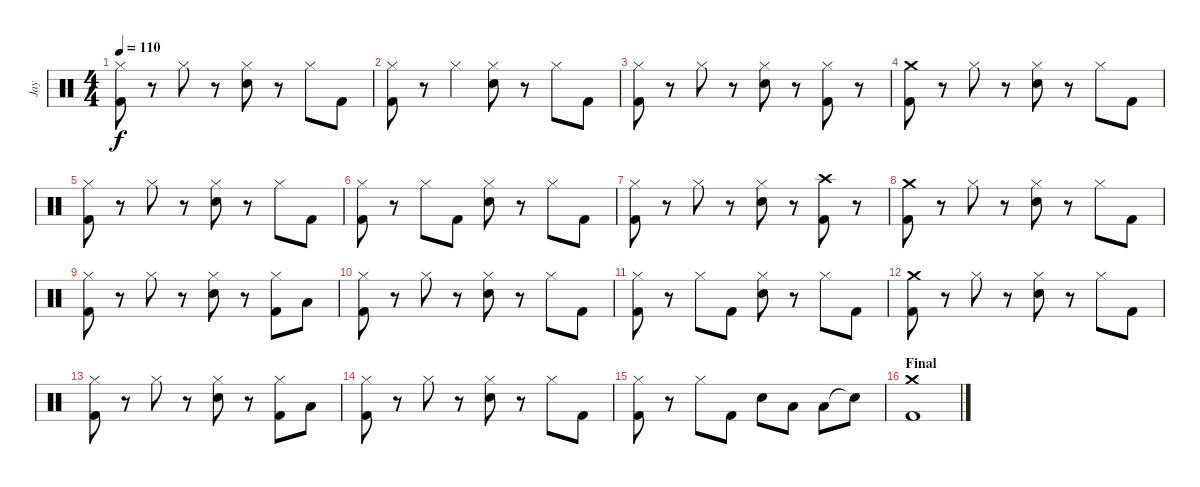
\track ("Jay" "Jay") {instrument percussion}
\staff {score}
\articulation defaults
\ts (4 4)
\tempo 110
\clef neutral
\ks c
("Hi-Hat (closed)" "Kick (hit) 2").8{dy f} r.8 "Hi-Hat (closed)".8 r.8 ("Hi-Hat (closed)" "Snare (hit) 2").8 r.8 "Hi-Hat (closed)".8 "Kick (hit) 2".8 |
("Hi-Hat (closed)" "Kick (hit) 2").8 r.8 "Hi-Hat (closed)".4 ("Hi-Hat (closed)" "Snare (hit) 2").8 r.8 "Hi-Hat (closed)".8 "Kick (hit) 2".8 |
("Hi-Hat (closed)" "Kick (hit) 2").8 r.8 "Hi-Hat (closed)".8 r.8 ("Hi-Hat (closed)" "Snare (hit) 2").8 r.8 ("Hi-Hat (closed)" "Kick (hit) 2").8 r.8 |
("Crash medium (hit)" "Kick (hit) 2").8 r.8 "Hi-Hat (closed)".8 r.8 ("Hi-Hat (closed)" "Snare (hit) 2").8 r.8 "Hi-Hat (closed)".8 "Kick (hit) 2".8 |
("Hi-Hat (closed)" "Kick (hit) 2").8 r.8 "Hi-Hat (closed)".8 r.8 ("Hi-Hat (closed)" "Snare (hit) 2").8 r.8 "Hi-Hat (closed)".8 "Kick (hit) 2".8 |
("Hi-Hat (closed)" "Kick (hit) 2").8 r.8 "Hi-Hat (closed)".8 "Kick (hit) 2".8 ("Hi-Hat (closed)" "Snare (hit) 2").8 r.8 "Hi-Hat (closed)".8 "Kick (hit) 2".8 |
("Hi-Hat (closed)" "Kick (hit) 2").8 r.8 "Hi-Hat (closed)".8 r.8 ("Hi-Hat (closed)" "Snare (hit) 2").8 r.8 ("Crash high (hit)" "Kick (hit) 2").8 r.8 |
("Crash medium (hit)" "Kick (hit) 2").8 r.8 "Hi-Hat (closed)".8 r.8 ("Hi-Hat (closed)" "Snare (hit) 2").8 r.8 "Hi-Hat (closed)".8 "Kick (hit) 2".8 |
("Hi-Hat (closed)" "Kick (hit) 2").8 r.8 "Hi-Hat (closed)".8 r.8 ("Hi-Hat (closed)" "Snare (hit) 2").8 r.8 ("Hi-Hat (closed)" "Kick (hit) 2").8 "Low Tom (hit)".8 |
("Hi-Hat (closed)" "Kick (hit) 2").8 r.8 "Hi-Hat (closed)".8 r.8 ("Hi-Hat (closed)" "Snare (hit) 2").8 r.8 "Hi-Hat (closed)".8 "Kick (hit) 2".8 |
("Hi-Hat (closed)" "Kick (hit) 2").8 r.8 "Hi-Hat (closed)".8 "Kick (hit) 2".8 ("Hi-Hat (closed)" "Snare (hit) 2").8 r.8 "Hi-Hat (closed)".8 "Kick (hit) 2".8 |
("Crash medium (hit)" "Kick (hit) 2").8 r.8 "Hi-Hat (closed)".8 r.8 ("Hi-Hat (closed)" "Snare (hit) 2").8 r.8 "Hi-Hat (closed)".8 "Kick (hit) 2".8 |
("Hi-Hat (closed)" "Kick (hit) 2").8 r.8 "Hi-Hat (closed)".8 r.8 ("Hi-Hat (closed)" "Snare (hit) 2").8 r.8 ("Hi-Hat (closed)" "Kick (hit) 2").8 "Low Tom (hit)".8 |
("Hi-Hat (closed)" "Kick (hit) 2").8 r.8 "Hi-Hat (closed)".8 r.8 ("Hi-Hat (closed)" "Snare (hit) 2").8 r.8 "Hi-Hat (closed)".8 "Kick (hit) 2".8 |
("Hi-Hat (closed)" "Kick (hit) 2").8 r.8 "Hi-Hat (closed)".8 "Kick (hit) 2".8 "Snare (hit) 2".8 "Low Tom (hit)".8 "Low Tom (hit)".8 "Snare (hit)"{t}.8 |
\section ("" "Final")
("Crash medium (hit)" "Kick (hit) 2").1
